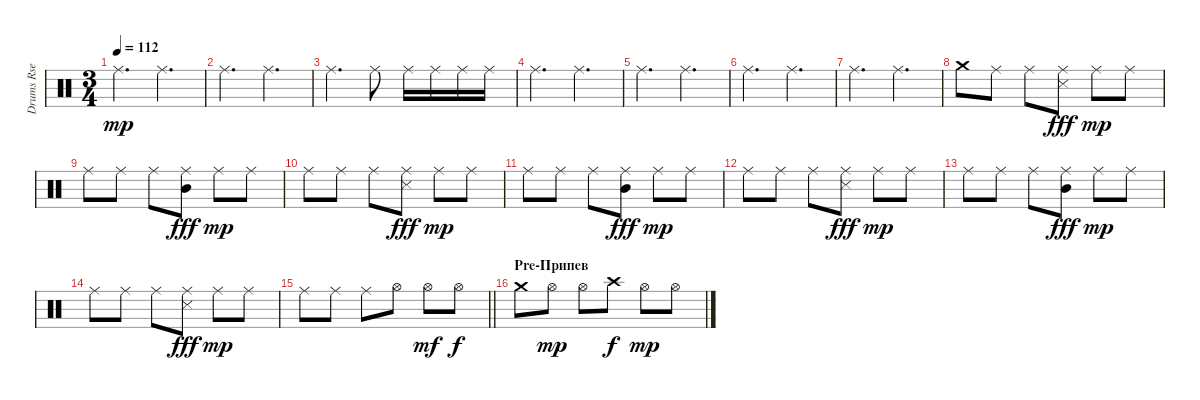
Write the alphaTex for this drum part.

\track ("Drums Rse" "Drums Rse") {instrument percussion}
\staff {score}
\articulation defaults
\ts (3 4)
\tempo 112
\clef neutral
\ks c "Ride (middle)".4{d dy mp} "Ride (middle)".4{d}
|
"Ride (middle)".4{d} "Ride (middle)".4{d} |
"Ride (middle)".4{d} "Ride (middle)".8 "Ride (middle)".16 "Ride (middle)".16 "Ride (middle)".16 "Ride (middle)".16 |
"Ride (middle)".4{d} "Ride (middle)".4{d} |
"Ride (middle)".4{d} "Ride (middle)".4{d} |
"Ride (middle)".4{d} "Ride (middle)".4{d} |
"Ride (middle)".4{d} "Ride (middle)".4{d} |
"Crash medium (hit)".8 "Ride (middle)".8 "Ride (middle)".8 ("Ride (middle)" "Metronome (hit)").8{dy fff} "Ride (middle)".8{dy mp} "Ride (middle)".8 |
"Ride (middle)".8 "Ride (middle)".8 "Ride (middle)".8 ("Ride (middle)" "Mid Tom (hit)").8{dy fff} "Ride (middle)".8{dy mp} "Ride (middle)".8 |
"Ride (middle)".8 "Ride (middle)".8 "Ride (middle)".8 ("Ride (middle)" "Metronome (hit)").8{dy fff} "Ride (middle)".8{dy mp} "Ride (middle)".8 |
"Ride (middle)".8 "Ride (middle)".8 "Ride (middle)".8 ("Ride (middle)" "Mid Tom (hit)").8{dy fff} "Ride (middle)".8{dy mp} "Ride (middle)".8 |
"Ride (middle)".8 "Ride (middle)".8 "Ride (middle)".8 ("Ride (middle)" "Metronome (hit)").8{dy fff} "Ride (middle)".8{dy mp} "Ride (middle)".8 |
"Ride (middle)".8 "Ride (middle)".8 "Ride (middle)".8 ("Ride (middle)" "Mid Tom (hit)").8{dy fff} "Ride (middle)".8{dy mp} "Ride (middle)".8 |
"Ride (middle)".8 "Ride (middle)".8 "Ride (middle)".8 ("Ride (middle)" "Metronome (hit)").8{dy fff} "Ride (middle)".8{dy mp} "Ride (middle)".8 |
\barLineRight lightlight "Ride (middle)".8 "Ride (middle)".8 "Ride (middle)".8 "Hi-Hat (open)".8 "Hi-Hat (open)".8{dy mf} "Hi-Hat (open)".8{dy f}
|
\section ("" "Pre-Припев")
"Crash medium (hit)".8 "Hi-Hat (open)".8{dy mp} "Hi-Hat (open)".8 "Crash high (hit)".8{dy f} "Hi-Hat (open)".8{dy mp} "Hi-Hat (open)".8
